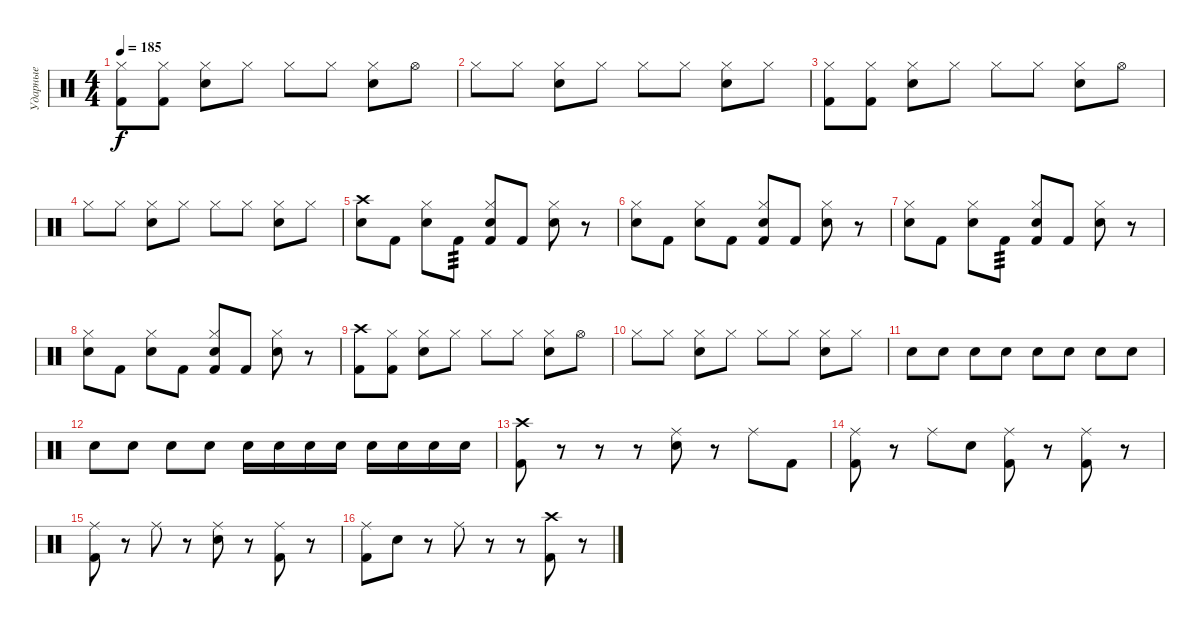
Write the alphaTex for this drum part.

\track ("Ударные" "Ударные") {instrument percussion}
\staff {score}
\articulation defaults
\ts (4 4)
\tempo 185
\clef neutral
\ks c
("Kick (hit) 2" "Hi-Hat (closed)").8{dy f} ("Kick (hit) 2" "Hi-Hat (closed)").8 ("Electric Snare (hit)" "Hi-Hat (closed)").8 "Hi-Hat (closed)".8 "Hi-Hat (closed)".8 "Hi-Hat (closed)".8 ("Electric Snare (hit)" "Hi-Hat (closed)").8 "Hi-Hat (open)".8 |
"Hi-Hat (closed)".8 "Hi-Hat (closed)".8 ("Electric Snare (hit)" "Hi-Hat (closed)").8 "Hi-Hat (closed)".8 "Hi-Hat (closed)".8 "Hi-Hat (closed)".8 ("Electric Snare (hit)" "Hi-Hat (closed)").8 "Hi-Hat (closed)".8 |
("Kick (hit) 2" "Hi-Hat (closed)").8 ("Kick (hit) 2" "Hi-Hat (closed)").8 ("Electric Snare (hit)" "Hi-Hat (closed)").8 "Hi-Hat (closed)".8 "Hi-Hat (closed)".8 "Hi-Hat (closed)".8 ("Electric Snare (hit)" "Hi-Hat (closed)").8 "Hi-Hat (open)".8 |
"Hi-Hat (closed)".8 "Hi-Hat (closed)".8 ("Electric Snare (hit)" "Hi-Hat (closed)").8 "Hi-Hat (closed)".8 "Hi-Hat (closed)".8 "Hi-Hat (closed)".8 ("Electric Snare (hit)" "Hi-Hat (closed)").8 "Hi-Hat (closed)".8 |
("Electric Snare (hit)" "Crash high (hit)").8 "Kick (hit) 2".8 ("Electric Snare (hit)" "Hi-Hat (closed)").8 "Kick (hit) 2".8{tp 3} ("Kick (hit) 2" "Electric Snare (hit)" "Hi-Hat (closed)").8 "Kick (hit) 2".8 ("Electric Snare (hit)" "Hi-Hat (closed)").8 r.8 |
("Electric Snare (hit)" "Hi-Hat (closed)").8 "Kick (hit) 2".8 ("Electric Snare (hit)" "Hi-Hat (closed)").8 "Kick (hit) 2".8 ("Kick (hit) 2" "Electric Snare (hit)" "Hi-Hat (closed)").8 "Kick (hit) 2".8 ("Electric Snare (hit)" "Hi-Hat (closed)").8 r.8 |
("Electric Snare (hit)" "Hi-Hat (closed)").8 "Kick (hit) 2".8 ("Electric Snare (hit)" "Hi-Hat (closed)").8 "Kick (hit) 2".8{tp 3} ("Kick (hit) 2" "Electric Snare (hit)" "Hi-Hat (closed)").8 "Kick (hit) 2".8 ("Electric Snare (hit)" "Hi-Hat (closed)").8 r.8 |
("Electric Snare (hit)" "Hi-Hat (closed)").8 "Kick (hit) 2".8 ("Electric Snare (hit)" "Hi-Hat (closed)").8 "Kick (hit) 2".8 ("Kick (hit) 2" "Electric Snare (hit)" "Hi-Hat (closed)").8 "Kick (hit) 2".8 ("Electric Snare (hit)" "Hi-Hat (closed)").8 r.8 |
("Kick (hit) 2" "Crash high (hit)").8 ("Kick (hit) 2" "Hi-Hat (closed)").8 ("Electric Snare (hit)" "Hi-Hat (closed)").8 "Hi-Hat (closed)".8 "Hi-Hat (closed)".8 "Hi-Hat (closed)".8 ("Electric Snare (hit)" "Hi-Hat (closed)").8 "Hi-Hat (open)".8 |
"Hi-Hat (closed)".8 "Hi-Hat (closed)".8 ("Electric Snare (hit)" "Hi-Hat (closed)").8 "Hi-Hat (closed)".8 "Hi-Hat (closed)".8 "Hi-Hat (closed)".8 ("Electric Snare (hit)" "Hi-Hat (closed)").8 "Hi-Hat (closed)".8 |
"Electric Snare (hit)".8 "Electric Snare (hit)".8 "Electric Snare (hit)".8 "Electric Snare (hit)".8 "Electric Snare (hit)".8 "Electric Snare (hit)".8 "Electric Snare (hit)".8 "Electric Snare (hit)".8 |
"Electric Snare (hit)".8 "Electric Snare (hit)".8 "Electric Snare (hit)".8 "Electric Snare (hit)".8 "Electric Snare (hit)".16 "Electric Snare (hit)".16 "Electric Snare (hit)".16 "Electric Snare (hit)".16 "Electric Snare (hit)".16 "Electric Snare (hit)".16 "Electric Snare (hit)".16 "Electric Snare (hit)".16 |
("Kick (hit) 2" "Crash high (hit)").8 r.8 r.8 r.8 ("Electric Snare (hit)" "Ride (middle)").8 r.8 "Ride (middle)".8 "Kick (hit) 2".8 |
("Kick (hit) 2" "Ride (middle)").8 r.8 "Ride (middle)".8 "Electric Snare (hit)".8 ("Kick (hit) 2" "Ride (middle)").8 r.8 ("Kick (hit) 2" "Ride (middle)").8 r.8 |
("Kick (hit) 2" "Ride (middle)").8 r.8 "Ride (middle)".8 r.8 ("Electric Snare (hit)" "Ride (middle)").8 r.8 ("Kick (hit) 2" "Ride (middle)").8 r.8 |
("Kick (hit) 2" "Ride (middle)").8 "Electric Snare (hit)".8 r.8 "Ride (middle)".8 r.8 r.8 ("Kick (hit) 2" "Crash high (hit)").8 r.8
